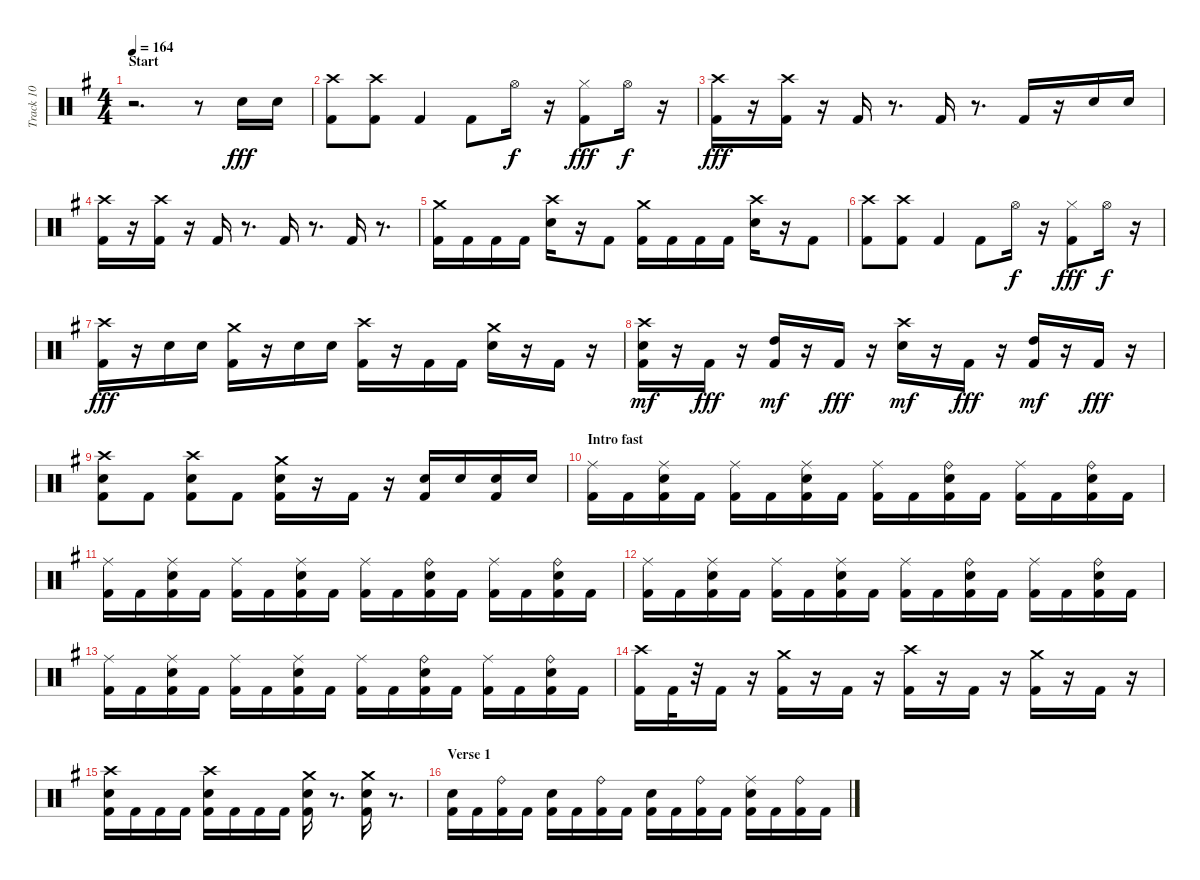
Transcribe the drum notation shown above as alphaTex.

\track ("Track 10" "Track 10") {instrument percussion}
\staff {score}
\articulation defaults
\ts (4 4)
\section ("" "Start")
\tempo 164
\clef neutral
\ks eminor
r.2{d dy fff} r.8 "Electric Snare (hit)".16 "Electric Snare (hit)".16 |
("Kick (hit) 2" "Crash high (hit)").8 ("Kick (hit) 2" "Crash high (hit)").8 "Kick (hit) 2".4 "Kick (hit) 2".8 "Hi-Hat (open)".16{dy f} r.16 ("Kick (hit) 2" "Hi-Hat (closed)").8{dy fff} "Hi-Hat (open)".16{dy f} r.16 |
("Kick (hit) 2" "Crash high (hit)").16{dy fff} r.16 ("Kick (hit) 2" "Crash high (hit)").16 r.16 "Kick (hit) 2".16 r.8{d} "Kick (hit) 2".16 r.8{d} "Kick (hit) 2".16 r.16 "Electric Snare (hit)".16 "Electric Snare (hit)".16 |
("Kick (hit) 2" "Crash high (hit)").16 r.16 ("Kick (hit) 2" "Crash high (hit)").16 r.16 "Kick (hit) 2".16 r.8{d} "Kick (hit) 2".16 r.8{d} "Kick (hit) 2".16 r.8{d} |
("Kick (hit) 2" "Crash medium (hit)").16 "Kick (hit) 2".16 "Kick (hit) 2".16 "Kick (hit) 2".16 ("Electric Snare (hit)" "Crash high (hit)").16 r.16 "Kick (hit) 2".8 ("Kick (hit) 2" "Crash medium (hit)").16 "Kick (hit) 2".16 "Kick (hit) 2".16 "Kick (hit) 2".16 ("Electric Snare (hit)" "Crash high (hit)").16 r.16 "Kick (hit) 2".8 |
("Kick (hit) 2" "Crash high (hit)").8 ("Kick (hit) 2" "Crash high (hit)").8 "Kick (hit) 2".4 "Kick (hit) 2".8 "Hi-Hat (open)".16{dy f} r.16 ("Kick (hit) 2" "Hi-Hat (closed)").8{dy fff} "Hi-Hat (open)".16{dy f} r.16 |
("Kick (hit) 2" "Crash high (hit)").16{dy fff} r.16 "Electric Snare (hit)".16 "Electric Snare (hit)".16 ("Kick (hit) 2" "Crash medium (hit)").16 r.16 "Electric Snare (hit)".16 "Electric Snare (hit)".16 ("Kick (hit) 2" "Crash high (hit)").16 r.16 "Kick (hit) 2".16 "Kick (hit) 2".16 ("Electric Snare (hit)" "Crash medium (hit)").16 r.16 "Kick (hit) 2".16 r.16 |
("Kick (hit) 2" "Electric Snare (hit)" "Crash high (hit)").16{dy mf} r.16 "Kick (hit) 2".16{dy fff} r.16 ("Kick (hit) 2" "High Tom (hit)").16{dy mf} r.16 "Kick (hit) 2".16{dy fff} r.16 ("Electric Snare (hit)" "Crash high (hit)").16{dy mf} r.16 "Kick (hit) 2".16{dy fff} r.16 ("Kick (hit) 2" "High Tom (hit)").16{dy mf} r.16 "Kick (hit) 2".16{dy fff} r.16 |
("Kick (hit) 2" "Electric Snare (hit)" "Crash high (hit)").8 "Kick (hit) 2".8 ("Kick (hit) 2" "Electric Snare (hit)" "Crash high (hit)").8 "Kick (hit) 2".8 ("Electric Snare (hit)" "Kick (hit) 2" "Crash medium (hit)").16 r.16 "Kick (hit) 2".16 r.16 ("Kick (hit) 2" "Electric Snare (hit)").16 "Electric Snare (hit)".16 ("Electric Snare (hit)" "Kick (hit) 2").16 "Electric Snare (hit)".16 |
\section ("" "Intro fast")
("Kick (hit) 2" "Ride (middle)").16 "Kick (hit) 2".16 ("Kick (hit) 2" "Electric Snare (hit)" "Ride (middle)").16 "Kick (hit) 2".16 ("Kick (hit) 2" "Ride (middle)").16 "Kick (hit) 2".16 ("Kick (hit) 2" "Electric Snare (hit)" "Ride (middle)").16 "Kick (hit) 2".16 ("Kick (hit) 2" "Ride (middle)").16 "Kick (hit) 2".16 ("Kick (hit) 2" "Electric Snare (hit)" "Ride (bell)").16 "Kick (hit) 2".16 ("Kick (hit) 2" "Ride (middle)").16 "Kick (hit) 2".16 ("Electric Snare (hit)" "Kick (hit) 2" "Ride (bell)").16 "Kick (hit) 2".16 |
("Kick (hit) 2" "Ride (middle)").16 "Kick (hit) 2".16 ("Electric Snare (hit)" "Kick (hit) 2" "Ride (middle)").16 "Kick (hit) 2".16 ("Kick (hit) 2" "Ride (middle)").16 "Kick (hit) 2".16 ("Kick (hit) 2" "Electric Snare (hit)" "Ride (middle)").16 "Kick (hit) 2".16 ("Kick (hit) 2" "Ride (middle)").16 "Kick (hit) 2".16 ("Kick (hit) 2" "Electric Snare (hit)" "Ride (bell)").16 "Kick (hit) 2".16 ("Kick (hit) 2" "Ride (middle)").16 "Kick (hit) 2".16 ("Kick (hit) 2" "Electric Snare (hit)" "Ride (bell)").16 "Kick (hit) 2".16 |
("Kick (hit) 2" "Ride (middle)").16 "Kick (hit) 2".16 ("Electric Snare (hit)" "Kick (hit) 2" "Ride (middle)").16 "Kick (hit) 2".16 ("Kick (hit) 2" "Ride (middle)").16 "Kick (hit) 2".16 ("Electric Snare (hit)" "Kick (hit) 2" "Ride (middle)").16 "Kick (hit) 2".16 ("Kick (hit) 2" "Ride (middle)").16 "Kick (hit) 2".16 ("Kick (hit) 2" "Electric Snare (hit)" "Ride (bell)").16 "Kick (hit) 2".16 ("Kick (hit) 2" "Ride (middle)").16 "Kick (hit) 2".16 ("Kick (hit) 2" "Electric Snare (hit)" "Ride (bell)").16 "Kick (hit) 2".16 |
("Kick (hit) 2" "Ride (middle)").16 "Kick (hit) 2".16 ("Kick (hit) 2" "Electric Snare (hit)" "Ride (middle)").16 "Kick (hit) 2".16 ("Kick (hit) 2" "Ride (middle)").16 "Kick (hit) 2".16 ("Electric Snare (hit)" "Kick (hit) 2" "Ride (middle)").16 "Kick (hit) 2".16 ("Kick (hit) 2" "Ride (middle)").16 "Kick (hit) 2".16 ("Electric Snare (hit)" "Kick (hit) 2" "Ride (bell)").16 "Kick (hit) 2".16 ("Kick (hit) 2" "Ride (middle)").16 "Kick (hit) 2".16 ("Electric Snare (hit)" "Kick (hit) 2" "Ride (bell)").16 "Kick (hit) 2".16 |
("Kick (hit) 2" "Crash high (hit)").16 "Kick (hit) 2".32 r.32 "Kick (hit) 2".16 r.16 ("Kick (hit) 2" "Crash medium (hit)").16 r.16 "Kick (hit) 2".16 r.16 ("Kick (hit) 2" "Crash high (hit)").16 r.16 "Kick (hit) 2".16 r.16 ("Kick (hit) 2" "Crash medium (hit)").16 r.16 "Kick (hit) 2".16 r.16 |
("Electric Snare (hit)" "Kick (hit) 2" "Crash high (hit)").16 "Kick (hit) 2".16 "Kick (hit) 2".16 "Kick (hit) 2".16 ("Electric Snare (hit)" "Kick (hit) 2" "Crash high (hit)").16 "Kick (hit) 2".16 "Kick (hit) 2".16 "Kick (hit) 2".16 ("Kick (hit) 2" "Electric Snare (hit)" "Crash medium (hit)").16 r.8{d} ("Electric Snare (hit)" "Kick (hit) 2" "Crash medium (hit)").16 r.8{d} |
\section ("" "Verse 1")
("Kick (hit) 2" "Electric Snare (hit)").16 "Kick (hit) 2".16 ("Kick (hit) 2" "Ride (bell)").16 "Kick (hit) 2".16 ("Electric Snare (hit)" "Kick (hit) 2").16 "Kick (hit) 2".16 ("Kick (hit) 2" "Ride (bell)").16 "Kick (hit) 2".16 ("Electric Snare (hit)" "Kick (hit) 2").16 "Kick (hit) 2".16 ("Kick (hit) 2" "Ride (bell)").16 "Kick (hit) 2".16 ("Electric Snare (hit)" "Kick (hit) 2" "Ride (middle)").16 "Kick (hit) 2".16 ("Kick (hit) 2" "Ride (bell)").16 "Kick (hit) 2".16
